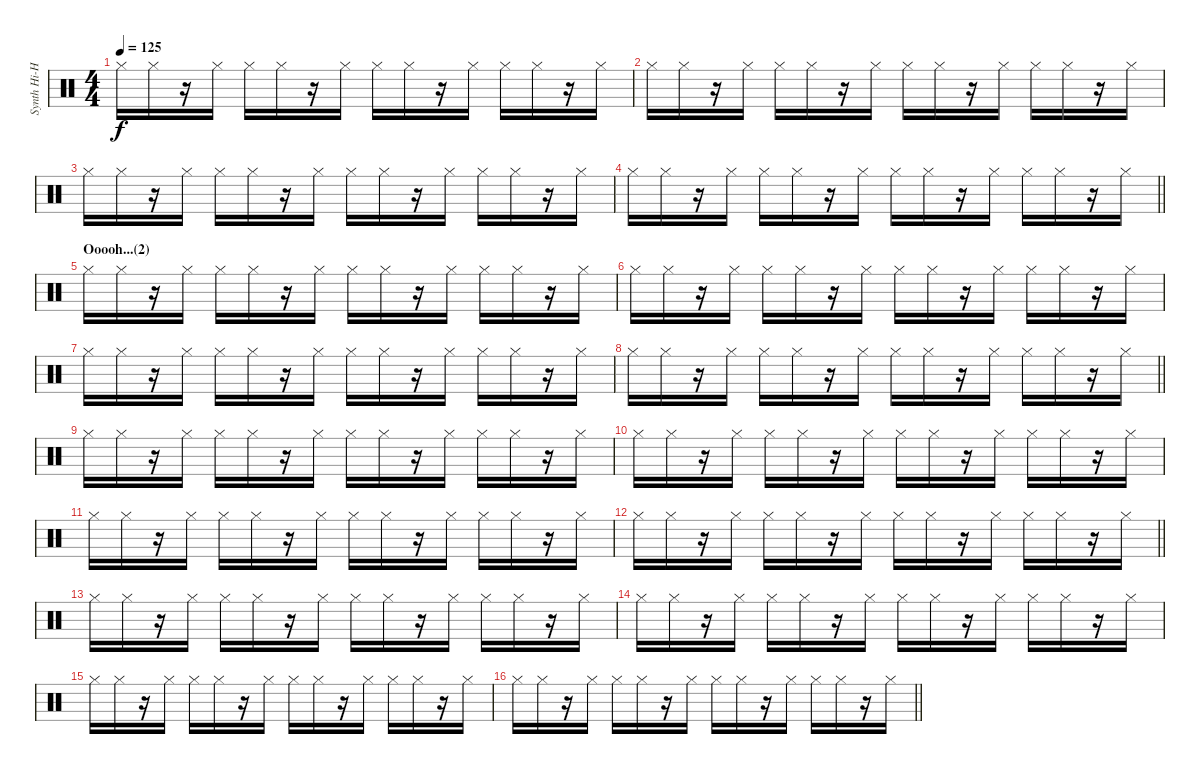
\track ("Synth Hi-Hat (Gillian Gilbert)" "Synth Hi-H") {instrument percussion}
\staff {score}
\articulation defaults
\ts (4 4)
\tempo 125
\clef neutral
\ks c "Hi-Hat (closed)".16{dy f} "Hi-Hat (closed)".16
r.16 "Hi-Hat (closed)".16 "Hi-Hat (closed)".16 "Hi-Hat (closed)".16 r.16 "Hi-Hat (closed)".16 "Hi-Hat (closed)".16 "Hi-Hat (closed)".16 r.16 "Hi-Hat (closed)".16 "Hi-Hat (closed)".16 "Hi-Hat (closed)".16 r.16 "Hi-Hat (closed)".16 |
"Hi-Hat (closed)".16 "Hi-Hat (closed)".16 r.16 "Hi-Hat (closed)".16 "Hi-Hat (closed)".16 "Hi-Hat (closed)".16 r.16 "Hi-Hat (closed)".16 "Hi-Hat (closed)".16 "Hi-Hat (closed)".16 r.16 "Hi-Hat (closed)".16 "Hi-Hat (closed)".16 "Hi-Hat (closed)".16 r.16 "Hi-Hat (closed)".16 |
"Hi-Hat (closed)".16 "Hi-Hat (closed)".16 r.16 "Hi-Hat (closed)".16 "Hi-Hat (closed)".16 "Hi-Hat (closed)".16 r.16 "Hi-Hat (closed)".16 "Hi-Hat (closed)".16 "Hi-Hat (closed)".16 r.16 "Hi-Hat (closed)".16 "Hi-Hat (closed)".16 "Hi-Hat (closed)".16 r.16 "Hi-Hat (closed)".16 |
\barLineRight lightlight "Hi-Hat (closed)".16 "Hi-Hat (closed)".16
r.16 "Hi-Hat (closed)".16 "Hi-Hat (closed)".16 "Hi-Hat (closed)".16 r.16 "Hi-Hat (closed)".16 "Hi-Hat (closed)".16 "Hi-Hat (closed)".16 r.16 "Hi-Hat (closed)".16 "Hi-Hat (closed)".16 "Hi-Hat (closed)".16 r.16 "Hi-Hat (closed)".16 |
\section ("" "Ooooh...(2)")
"Hi-Hat (closed)".16 "Hi-Hat (closed)".16 r.16 "Hi-Hat (closed)".16 "Hi-Hat (closed)".16 "Hi-Hat (closed)".16 r.16 "Hi-Hat (closed)".16 "Hi-Hat (closed)".16 "Hi-Hat (closed)".16 r.16 "Hi-Hat (closed)".16 "Hi-Hat (closed)".16 "Hi-Hat (closed)".16 r.16 "Hi-Hat (closed)".16 |
"Hi-Hat (closed)".16 "Hi-Hat (closed)".16 r.16 "Hi-Hat (closed)".16 "Hi-Hat (closed)".16 "Hi-Hat (closed)".16 r.16 "Hi-Hat (closed)".16 "Hi-Hat (closed)".16 "Hi-Hat (closed)".16 r.16 "Hi-Hat (closed)".16 "Hi-Hat (closed)".16 "Hi-Hat (closed)".16 r.16 "Hi-Hat (closed)".16 |
"Hi-Hat (closed)".16 "Hi-Hat (closed)".16 r.16 "Hi-Hat (closed)".16 "Hi-Hat (closed)".16 "Hi-Hat (closed)".16 r.16 "Hi-Hat (closed)".16 "Hi-Hat (closed)".16 "Hi-Hat (closed)".16 r.16 "Hi-Hat (closed)".16 "Hi-Hat (closed)".16 "Hi-Hat (closed)".16 r.16 "Hi-Hat (closed)".16 |
\barLineRight lightlight "Hi-Hat (closed)".16 "Hi-Hat (closed)".16
r.16 "Hi-Hat (closed)".16 "Hi-Hat (closed)".16 "Hi-Hat (closed)".16 r.16 "Hi-Hat (closed)".16 "Hi-Hat (closed)".16 "Hi-Hat (closed)".16 r.16 "Hi-Hat (closed)".16 "Hi-Hat (closed)".16 "Hi-Hat (closed)".16 r.16 "Hi-Hat (closed)".16 |
"Hi-Hat (closed)".16 "Hi-Hat (closed)".16 r.16 "Hi-Hat (closed)".16 "Hi-Hat (closed)".16 "Hi-Hat (closed)".16 r.16 "Hi-Hat (closed)".16 "Hi-Hat (closed)".16 "Hi-Hat (closed)".16 r.16 "Hi-Hat (closed)".16 "Hi-Hat (closed)".16 "Hi-Hat (closed)".16 r.16 "Hi-Hat (closed)".16 |
"Hi-Hat (closed)".16 "Hi-Hat (closed)".16 r.16 "Hi-Hat (closed)".16 "Hi-Hat (closed)".16 "Hi-Hat (closed)".16 r.16 "Hi-Hat (closed)".16 "Hi-Hat (closed)".16 "Hi-Hat (closed)".16 r.16 "Hi-Hat (closed)".16 "Hi-Hat (closed)".16 "Hi-Hat (closed)".16 r.16 "Hi-Hat (closed)".16 |
"Hi-Hat (closed)".16 "Hi-Hat (closed)".16 r.16 "Hi-Hat (closed)".16 "Hi-Hat (closed)".16 "Hi-Hat (closed)".16 r.16 "Hi-Hat (closed)".16 "Hi-Hat (closed)".16 "Hi-Hat (closed)".16 r.16 "Hi-Hat (closed)".16 "Hi-Hat (closed)".16 "Hi-Hat (closed)".16 r.16 "Hi-Hat (closed)".16 |
\barLineRight lightlight "Hi-Hat (closed)".16 "Hi-Hat (closed)".16
r.16 "Hi-Hat (closed)".16 "Hi-Hat (closed)".16 "Hi-Hat (closed)".16 r.16 "Hi-Hat (closed)".16 "Hi-Hat (closed)".16 "Hi-Hat (closed)".16 r.16 "Hi-Hat (closed)".16 "Hi-Hat (closed)".16 "Hi-Hat (closed)".16 r.16 "Hi-Hat (closed)".16 |
"Hi-Hat (closed)".16 "Hi-Hat (closed)".16 r.16 "Hi-Hat (closed)".16 "Hi-Hat (closed)".16 "Hi-Hat (closed)".16 r.16 "Hi-Hat (closed)".16 "Hi-Hat (closed)".16 "Hi-Hat (closed)".16 r.16 "Hi-Hat (closed)".16 "Hi-Hat (closed)".16 "Hi-Hat (closed)".16 r.16 "Hi-Hat (closed)".16 |
"Hi-Hat (closed)".16 "Hi-Hat (closed)".16 r.16 "Hi-Hat (closed)".16 "Hi-Hat (closed)".16 "Hi-Hat (closed)".16 r.16 "Hi-Hat (closed)".16 "Hi-Hat (closed)".16 "Hi-Hat (closed)".16 r.16 "Hi-Hat (closed)".16 "Hi-Hat (closed)".16 "Hi-Hat (closed)".16 r.16 "Hi-Hat (closed)".16 |
"Hi-Hat (closed)".16 "Hi-Hat (closed)".16 r.16 "Hi-Hat (closed)".16 "Hi-Hat (closed)".16 "Hi-Hat (closed)".16 r.16 "Hi-Hat (closed)".16 "Hi-Hat (closed)".16 "Hi-Hat (closed)".16 r.16 "Hi-Hat (closed)".16 "Hi-Hat (closed)".16 "Hi-Hat (closed)".16 r.16 "Hi-Hat (closed)".16 |
\barLineRight lightlight "Hi-Hat (closed)".16 "Hi-Hat (closed)".16
r.16 "Hi-Hat (closed)".16 "Hi-Hat (closed)".16 "Hi-Hat (closed)".16 r.16 "Hi-Hat (closed)".16 "Hi-Hat (closed)".16 "Hi-Hat (closed)".16 r.16 "Hi-Hat (closed)".16 "Hi-Hat (closed)".16 "Hi-Hat (closed)".16 r.16 "Hi-Hat (closed)".16
